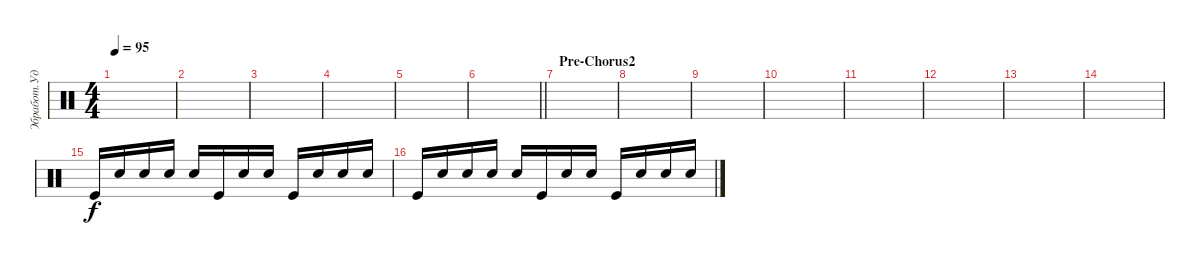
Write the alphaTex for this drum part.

\track ("Обработ.Ударные" "Обработ.Уд") {instrument percussion}
\staff {score}
\articulation defaults
\ts (4 4)
\tempo 95
\clef neutral
\ks c
|
|
|
|
|
\barLineRight lightlight
|
\section ("" "Pre-Chorus2")
|
|
|
|
|
|
|
|
"Kick (hit)".16{volume 7} "Snare (hit)".16 "Snare (hit)".16 "Electric Snare (hit)".16 "Snare (hit)".16 "Kick (hit)".16 "Snare (hit)".16 "Snare (hit)".16 "Kick (hit)".16 "Snare (hit)".16 "Snare (hit)".16 "Electric Snare (hit)".16 |
"Kick (hit)".16 "Snare (hit)".16 "Snare (hit)".16 "Electric Snare (hit)".16 "Snare (hit)".16 "Kick (hit)".16 "Snare (hit)".16 "Snare (hit)".16 "Kick (hit)".16 "Snare (hit)".16 "Snare (hit)".16 "Electric Snare (hit)".16
